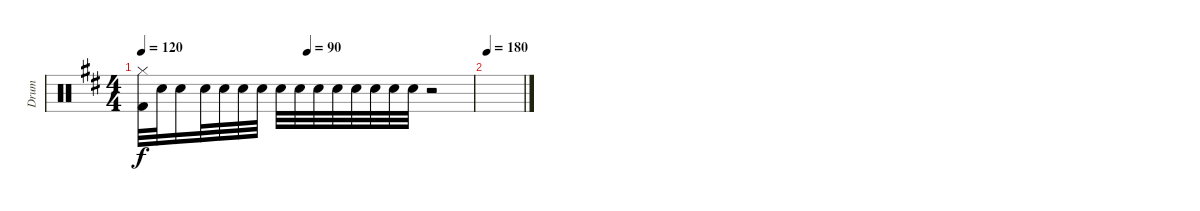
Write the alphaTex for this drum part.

\track ("Drum" "Drum") {instrument percussion}
\staff {score}
\articulation defaults
\ts (4 4)
\tempo 120
\tempo (90 0.5)
\clef neutral
\ks d
("Hi-Hat (closed)" "Kick (hit) 2").32{dy f} "Electric Snare (hit)".32 "Electric Snare (hit)".16 "Electric Snare (hit)".32 "Electric Snare (hit)".32 "Electric Snare (hit)".32 "Electric Snare (hit)".32 "Electric Snare (hit)".32 "Electric Snare (hit)".32 "Electric Snare (hit)".32 "Electric Snare (hit)".32 "Electric Snare (hit)".32 "Electric Snare (hit)".32 "Electric Snare (hit)".32 "Electric Snare (hit)".32 r.2 |
\tempo 180
